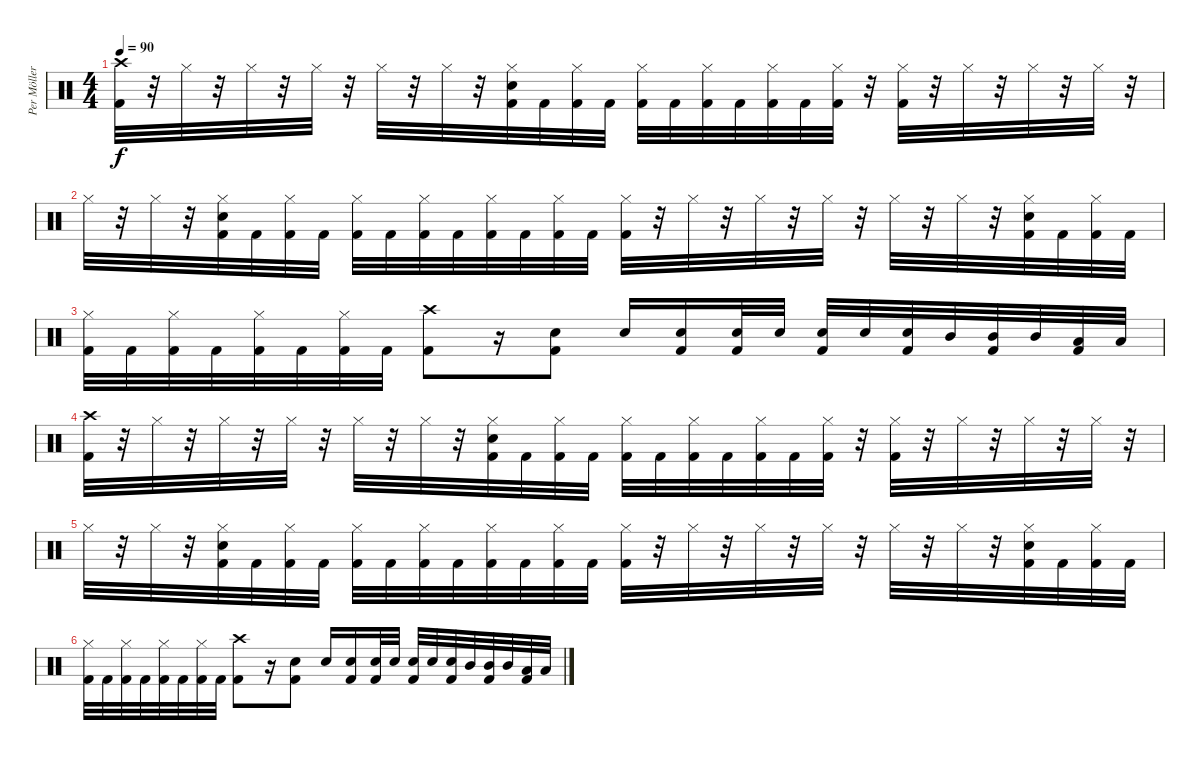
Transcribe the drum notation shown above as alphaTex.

\track ("Per Möller-Jensen" "Per Möller") {instrument percussion}
\staff {score}
\articulation defaults
\ts (4 4)
\tempo 90
\clef neutral
\ks c
("Crash high (hit)" "Kick (hit) 2").32{dy f} r.32 "Hi-Hat (closed)".32 r.32 "Hi-Hat (closed)".32 r.32 "Hi-Hat (closed)".32 r.32 "Hi-Hat (closed)".32 r.32 "Hi-Hat (closed)".32 r.32 ("Hi-Hat (closed)" "Snare (hit) 2" "Kick (hit) 2").32 "Kick (hit) 2".32 ("Hi-Hat (closed)" "Kick (hit) 2").32 "Kick (hit) 2".32 ("Hi-Hat (closed)" "Kick (hit) 2").32 "Kick (hit) 2".32 ("Hi-Hat (closed)" "Kick (hit) 2").32 "Kick (hit) 2".32 ("Hi-Hat (closed)" "Kick (hit) 2").32 "Kick (hit) 2".32 ("Hi-Hat (closed)" "Kick (hit) 2").32 r.32 ("Hi-Hat (closed)" "Kick (hit) 2").32 r.32 "Hi-Hat (closed)".32 r.32 "Hi-Hat (closed)".32 r.32 "Hi-Hat (closed)".32 r.32 |
"Hi-Hat (closed)".32 r.32 "Hi-Hat (closed)".32 r.32 ("Hi-Hat (closed)" "Snare (hit) 2" "Kick (hit) 2").32 "Kick (hit) 2".32 ("Hi-Hat (closed)" "Kick (hit) 2").32 "Kick (hit) 2".32 ("Hi-Hat (closed)" "Kick (hit) 2").32 "Kick (hit) 2".32 ("Hi-Hat (closed)" "Kick (hit) 2").32 "Kick (hit) 2".32 ("Hi-Hat (closed)" "Kick (hit) 2").32 "Kick (hit) 2".32 ("Hi-Hat (closed)" "Kick (hit) 2").32 "Kick (hit) 2".32 ("Hi-Hat (closed)" "Kick (hit) 2").32 r.32 "Hi-Hat (closed)".32 r.32 "Hi-Hat (closed)".32 r.32 "Hi-Hat (closed)".32 r.32 "Hi-Hat (closed)".32 r.32 "Hi-Hat (closed)".32 r.32 ("Hi-Hat (closed)" "Snare (hit) 2" "Kick (hit) 2").32 "Kick (hit) 2".32 ("Hi-Hat (closed)" "Kick (hit) 2").32 "Kick (hit) 2".32 |
("Hi-Hat (closed)" "Kick (hit) 2").32 "Kick (hit) 2".32 ("Hi-Hat (closed)" "Kick (hit) 2").32 "Kick (hit) 2".32 ("Hi-Hat (closed)" "Kick (hit) 2").32 "Kick (hit) 2".32 ("Hi-Hat (closed)" "Kick (hit) 2").32 "Kick (hit) 2".32 ("Crash high (hit)" "Kick (hit) 2").8 r.16 ("Snare (hit) 2" "Kick (hit) 2").8 "Snare (hit) 2".16 ("Snare (hit) 2" "Kick (hit) 2").16 ("Snare (hit) 2" "Kick (hit) 2").32 "Snare (hit) 2".32 ("Snare (hit) 2" "Kick (hit) 2").32 "Snare (hit) 2".32 ("Snare (hit) 2" "Kick (hit) 2").32 "Mid Tom (hit)".32 ("Mid Tom (hit)" "Kick (hit) 2").32 "Mid Tom (hit)".32 ("Low Tom (hit)" "Kick (hit) 2").32 "Low Tom (hit)".32 |
("Crash high (hit)" "Kick (hit) 2").32 r.32 "Hi-Hat (closed)".32 r.32 "Hi-Hat (closed)".32 r.32 "Hi-Hat (closed)".32 r.32 "Hi-Hat (closed)".32 r.32 "Hi-Hat (closed)".32 r.32 ("Hi-Hat (closed)" "Snare (hit) 2" "Kick (hit) 2").32 "Kick (hit) 2".32 ("Hi-Hat (closed)" "Kick (hit) 2").32 "Kick (hit) 2".32 ("Hi-Hat (closed)" "Kick (hit) 2").32 "Kick (hit) 2".32 ("Hi-Hat (closed)" "Kick (hit) 2").32 "Kick (hit) 2".32 ("Hi-Hat (closed)" "Kick (hit) 2").32 "Kick (hit) 2".32 ("Hi-Hat (closed)" "Kick (hit) 2").32 r.32 ("Hi-Hat (closed)" "Kick (hit) 2").32 r.32 "Hi-Hat (closed)".32 r.32 "Hi-Hat (closed)".32 r.32 "Hi-Hat (closed)".32 r.32 |
"Hi-Hat (closed)".32 r.32 "Hi-Hat (closed)".32 r.32 ("Hi-Hat (closed)" "Snare (hit) 2" "Kick (hit) 2").32 "Kick (hit) 2".32 ("Hi-Hat (closed)" "Kick (hit) 2").32 "Kick (hit) 2".32 ("Hi-Hat (closed)" "Kick (hit) 2").32 "Kick (hit) 2".32 ("Hi-Hat (closed)" "Kick (hit) 2").32 "Kick (hit) 2".32 ("Hi-Hat (closed)" "Kick (hit) 2").32 "Kick (hit) 2".32 ("Hi-Hat (closed)" "Kick (hit) 2").32 "Kick (hit) 2".32 ("Hi-Hat (closed)" "Kick (hit) 2").32 r.32 "Hi-Hat (closed)".32 r.32 "Hi-Hat (closed)".32 r.32 "Hi-Hat (closed)".32 r.32 "Hi-Hat (closed)".32 r.32 "Hi-Hat (closed)".32 r.32 ("Hi-Hat (closed)" "Snare (hit) 2" "Kick (hit) 2").32 "Kick (hit) 2".32 ("Hi-Hat (closed)" "Kick (hit) 2").32 "Kick (hit) 2".32 |
("Hi-Hat (closed)" "Kick (hit) 2").32 "Kick (hit) 2".32 ("Hi-Hat (closed)" "Kick (hit) 2").32 "Kick (hit) 2".32 ("Hi-Hat (closed)" "Kick (hit) 2").32 "Kick (hit) 2".32 ("Hi-Hat (closed)" "Kick (hit) 2").32 "Kick (hit) 2".32 ("Crash high (hit)" "Kick (hit) 2").8 r.16 ("Snare (hit) 2" "Kick (hit) 2").8 "Snare (hit) 2".16 ("Snare (hit) 2" "Kick (hit) 2").16 ("Snare (hit) 2" "Kick (hit) 2").32 "Snare (hit) 2".32 ("Snare (hit) 2" "Kick (hit) 2").32 "Snare (hit) 2".32 ("Snare (hit) 2" "Kick (hit) 2").32 "Mid Tom (hit)".32 ("Mid Tom (hit)" "Kick (hit) 2").32 "Mid Tom (hit)".32 ("Low Tom (hit)" "Kick (hit) 2").32 "Low Tom (hit)".32
